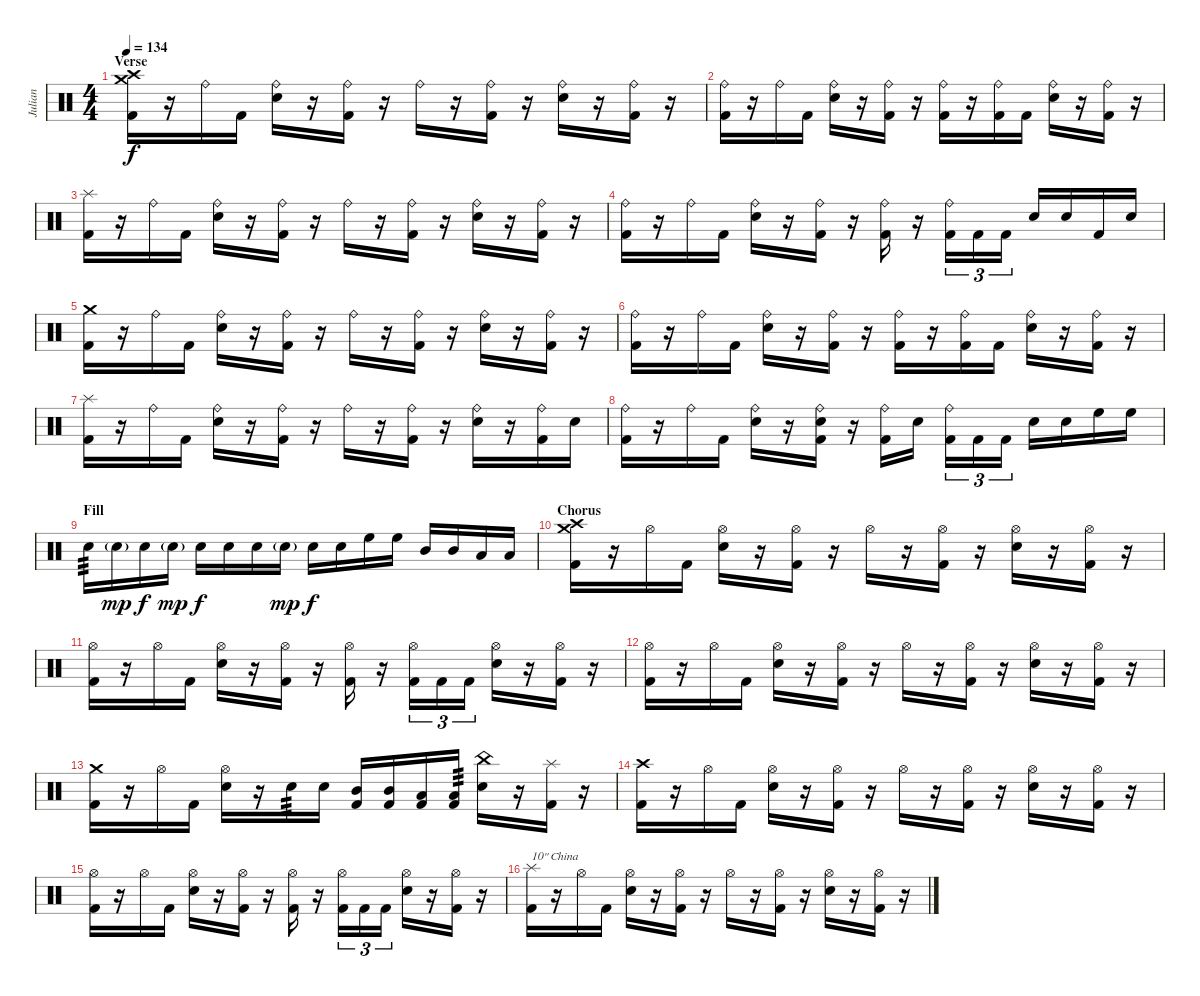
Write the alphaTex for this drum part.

\track ("Julian" "Julian") {instrument percussion}
\staff {score}
\articulation defaults
\ts (4 4)
\section ("" "Verse")
\tempo 134
\clef neutral
\ks c
("Crash high (hit)" "Crash medium (hit)" "Kick (hit) 2").16{dy f} r.16 "Ride (bell)".16 "Kick (hit) 2".16 ("Ride (bell)" "Electric Snare (hit)").16 r.16 ("Ride (bell)" "Kick (hit) 2").16 r.16 "Ride (bell)".16 r.16 ("Ride (bell)" "Kick (hit) 2").16 r.16 ("Ride (bell)" "Electric Snare (hit)").16 r.16 ("Ride (bell)" "Kick (hit) 2").16 r.16 |
("Ride (bell)" "Kick (hit) 2").16 r.16 "Ride (bell)".16 "Kick (hit) 2".16 ("Ride (bell)" "Electric Snare (hit)").16 r.16 ("Ride (bell)" "Kick (hit) 2").16 r.16 ("Ride (bell)" "Kick (hit) 2").16 r.16 ("Ride (bell)" "Kick (hit) 2").16 "Kick (hit) 2".16 ("Ride (bell)" "Electric Snare (hit)").16 r.16 ("Ride (bell)" "Kick (hit) 2").16 r.16 |
("Splash (hit)" "Kick (hit) 2").16 r.16 "Ride (bell)".16 "Kick (hit) 2".16 ("Ride (bell)" "Electric Snare (hit)").16 r.16 ("Ride (bell)" "Kick (hit) 2").16 r.16 "Ride (bell)".16 r.16 ("Ride (bell)" "Kick (hit) 2").16 r.16 ("Ride (bell)" "Electric Snare (hit)").16 r.16 ("Ride (bell)" "Kick (hit) 2").16 r.16 |
("Ride (bell)" "Kick (hit) 2").16 r.16 "Ride (bell)".16 "Kick (hit) 2".16 ("Ride (bell)" "Electric Snare (hit)").16 r.16 ("Ride (bell)" "Kick (hit) 2").16 r.16 ("Ride (bell)" "Kick (hit) 2").16 r.16 ("Ride (bell)" "Kick (hit) 2").16{tu (3 2)} "Kick (hit) 2".16{tu (3 2)} "Kick (hit) 2".16{tu (3 2)} "Electric Snare (hit)".16 "Electric Snare (hit)".16 "Kick (hit) 2".16 "Electric Snare (hit)".16 |
("Crash medium (hit)" "Kick (hit) 2").16 r.16 "Ride (bell)".16 "Kick (hit) 2".16 ("Ride (bell)" "Electric Snare (hit)").16 r.16 ("Ride (bell)" "Kick (hit) 2").16 r.16 "Ride (bell)".16 r.16 ("Ride (bell)" "Kick (hit) 2").16 r.16 ("Ride (bell)" "Electric Snare (hit)").16 r.16 ("Ride (bell)" "Kick (hit) 2").16 r.16 |
("Ride (bell)" "Kick (hit) 2").16 r.16 "Ride (bell)".16 "Kick (hit) 2".16 ("Ride (bell)" "Electric Snare (hit)").16 r.16 ("Ride (bell)" "Kick (hit) 2").16 r.16 ("Ride (bell)" "Kick (hit) 2").16 r.16 ("Ride (bell)" "Kick (hit) 2").16 "Kick (hit) 2".16 ("Ride (bell)" "Electric Snare (hit)").16 r.16 ("Ride (bell)" "Kick (hit) 2").16 r.16 |
("Splash (hit)" "Kick (hit) 2").16 r.16 "Ride (bell)".16 "Kick (hit) 2".16 ("Ride (bell)" "Electric Snare (hit)").16 r.16 ("Ride (bell)" "Kick (hit) 2").16 r.16 "Ride (bell)".16 r.16 ("Ride (bell)" "Kick (hit) 2").16 r.16 ("Ride (bell)" "Electric Snare (hit)").16 r.16 ("Ride (bell)" "Kick (hit) 2").16 "Electric Snare (hit)".16 |
("Ride (bell)" "Kick (hit) 2").16 r.16 "Ride (bell)".16 "Kick (hit) 2".16 ("Ride (bell)" "Electric Snare (hit)").16 r.16 ("Ride (bell)" "Electric Snare (hit)" "Kick (hit) 2").16 r.16 ("Ride (bell)" "Kick (hit) 2").16 "Electric Snare (hit)".16 ("Ride (bell)" "Kick (hit) 2").16{tu (3 2)} "Kick (hit) 2".16{tu (3 2)} "Kick (hit) 2".16{tu (3 2)} "Electric Snare (hit)".16 "Electric Snare (hit)".16 "High Floor Tom (hit)".16 "High Floor Tom (hit)".16 |
\section ("" "Fill")
"Electric Snare (hit)".16{tp 3} "Electric Snare (hit)"{g}.16{dy mp} "Electric Snare (hit)".16{dy f} "Electric Snare (hit)"{g}.16{dy mp} "Electric Snare (hit)".16{dy f} "Electric Snare (hit)".16 "Electric Snare (hit)".16 "Electric Snare (hit)"{g}.16{dy mp} "Electric Snare (hit)".16{dy f} "Electric Snare (hit)".16 "High Floor Tom (hit)".16 "High Floor Tom (hit)".16 "Mid Tom (hit)".16 "Mid Tom (hit)".16 "Low Tom (hit)".16 "Low Tom (hit)".16 |
\section ("" "Chorus")
("Crash high (hit)" "Crash medium (hit)" "Kick (hit) 2").16 r.16 "Hi-Hat (open)".16 "Kick (hit) 2".16 ("Hi-Hat (open)" "Electric Snare (hit)").16 r.16 ("Hi-Hat (open)" "Kick (hit) 2").16 r.16 "Hi-Hat (open)".16 r.16 ("Hi-Hat (open)" "Kick (hit) 2").16 r.16 ("Hi-Hat (open)" "Electric Snare (hit)").16 r.16 ("Hi-Hat (open)" "Kick (hit) 2").16 r.16 |
("Hi-Hat (open)" "Kick (hit) 2").16 r.16 "Hi-Hat (open)".16 "Kick (hit) 2".16 ("Hi-Hat (open)" "Electric Snare (hit)").16 r.16 ("Hi-Hat (open)" "Kick (hit) 2").16 r.16 ("Hi-Hat (open)" "Kick (hit) 2").16 r.16 ("Hi-Hat (open)" "Kick (hit) 2").16{tu (3 2)} "Kick (hit) 2".16{tu (3 2)} "Kick (hit) 2".16{tu (3 2)} ("Hi-Hat (open)" "Electric Snare (hit)").16 r.16 ("Hi-Hat (open)" "Kick (hit) 2").16 r.16 |
("Hi-Hat (open)" "Kick (hit) 2").16 r.16 "Hi-Hat (open)".16 "Kick (hit) 2".16 ("Hi-Hat (open)" "Electric Snare (hit)").16 r.16 ("Hi-Hat (open)" "Kick (hit) 2").16 r.16 "Hi-Hat (open)".16 r.16 ("Hi-Hat (open)" "Kick (hit) 2").16 r.16 ("Hi-Hat (open)" "Electric Snare (hit)").16 r.16 ("Hi-Hat (open)" "Kick (hit) 2").16 r.16 |
("Crash medium (hit)" "Kick (hit) 2").16 r.16 "Hi-Hat (open)".16 "Kick (hit) 2".16 ("Hi-Hat (open)" "Electric Snare (hit)").16 r.16 "Electric Snare (hit)".16{tp 3} "Electric Snare (hit)".16 ("Mid Tom (hit)" "Kick (hit) 2").16 ("Mid Tom (hit)" "Kick (hit) 2").16 ("Low Tom (hit)" "Kick (hit) 2").16 ("Low Tom (hit)" "Kick (hit) 2").16{tp 3} ("China (hit)" "Electric Snare (hit)").16 r.16 ("Splash (hit)" "Kick (hit) 2").16 r.16 |
("Crash high (hit)" "Kick (hit) 2").16 r.16 "Hi-Hat (open)".16 "Kick (hit) 2".16 ("Hi-Hat (open)" "Electric Snare (hit)").16 r.16 ("Hi-Hat (open)" "Kick (hit) 2").16 r.16 "Hi-Hat (open)".16 r.16 ("Hi-Hat (open)" "Kick (hit) 2").16 r.16 ("Hi-Hat (open)" "Electric Snare (hit)").16 r.16 ("Hi-Hat (open)" "Kick (hit) 2").16 r.16 |
("Hi-Hat (open)" "Kick (hit) 2").16 r.16 "Hi-Hat (open)".16 "Kick (hit) 2".16 ("Hi-Hat (open)" "Electric Snare (hit)").16 r.16 ("Hi-Hat (open)" "Kick (hit) 2").16 r.16 ("Hi-Hat (open)" "Kick (hit) 2").16 r.16 ("Hi-Hat (open)" "Kick (hit) 2").16{tu (3 2)} "Kick (hit) 2".16{tu (3 2)} "Kick (hit) 2".16{tu (3 2)} ("Hi-Hat (open)" "Electric Snare (hit)").16 r.16 ("Hi-Hat (open)" "Kick (hit) 2").16 r.16 |
("Splash (hit)" "Kick (hit) 2").16{txt "10\" China"} r.16 "Hi-Hat (open)".16 "Kick (hit) 2".16 ("Hi-Hat (open)" "Electric Snare (hit)").16 r.16 ("Hi-Hat (open)" "Kick (hit) 2").16 r.16 "Hi-Hat (open)".16 r.16 ("Hi-Hat (open)" "Kick (hit) 2").16 r.16 ("Hi-Hat (open)" "Electric Snare (hit)").16 r.16 ("Hi-Hat (open)" "Kick (hit) 2").16 r.16
